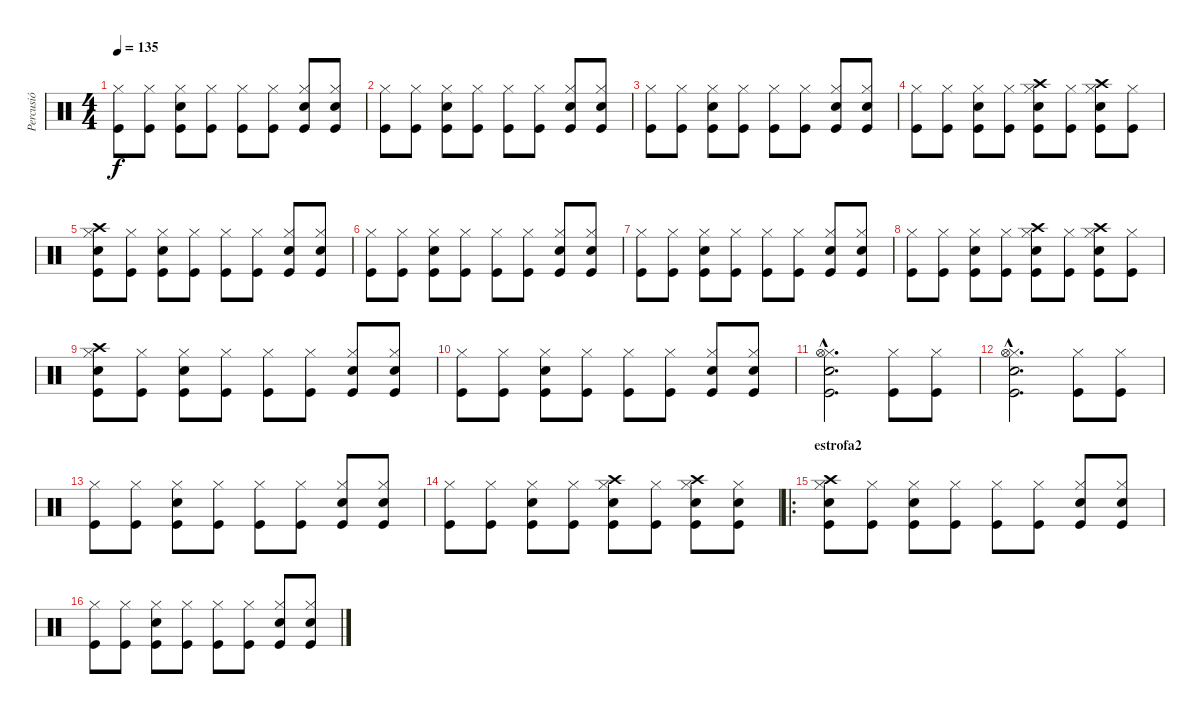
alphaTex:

\track ("Percusió" "Percusió") {instrument percussion}
\staff {score}
\articulation defaults
\ts (4 4)
\tempo 135
\clef neutral
\ks c
("Kick (hit)" "Hi-Hat (closed)").8{dy f} ("Kick (hit)" "Hi-Hat (closed)").8 ("Kick (hit)" "Hi-Hat (closed)" "Snare (hit) 2").8 ("Kick (hit)" "Hi-Hat (closed)").8 ("Kick (hit)" "Hi-Hat (closed)").8 ("Kick (hit)" "Hi-Hat (closed)").8 ("Kick (hit)" "Hi-Hat (closed)" "Snare (hit) 2").8 ("Kick (hit)" "Hi-Hat (closed)" "Snare (hit) 2").8 |
("Kick (hit)" "Hi-Hat (closed)").8 ("Kick (hit)" "Hi-Hat (closed)").8 ("Kick (hit)" "Hi-Hat (closed)" "Snare (hit) 2").8 ("Kick (hit)" "Hi-Hat (closed)").8 ("Kick (hit)" "Hi-Hat (closed)").8 ("Kick (hit)" "Hi-Hat (closed)").8 ("Kick (hit)" "Hi-Hat (closed)" "Snare (hit) 2").8 ("Kick (hit)" "Hi-Hat (closed)" "Snare (hit) 2").8 |
("Kick (hit)" "Hi-Hat (closed)").8 ("Kick (hit)" "Hi-Hat (closed)").8 ("Kick (hit)" "Hi-Hat (closed)" "Snare (hit) 2").8 ("Kick (hit)" "Hi-Hat (closed)").8 ("Kick (hit)" "Hi-Hat (closed)").8 ("Kick (hit)" "Hi-Hat (closed)").8 ("Kick (hit)" "Hi-Hat (closed)" "Snare (hit) 2").8 ("Kick (hit)" "Hi-Hat (closed)" "Snare (hit) 2").8 |
("Kick (hit)" "Hi-Hat (closed)").8 ("Kick (hit)" "Hi-Hat (closed)").8 ("Kick (hit)" "Hi-Hat (closed)" "Snare (hit) 2").8 ("Kick (hit)" "Hi-Hat (closed)").8 ("Kick (hit)" "Hi-Hat (closed)" "Snare (hit) 2" "Crash high (hit)").8 ("Kick (hit)" "Hi-Hat (closed)").8 ("Kick (hit)" "Hi-Hat (closed)" "Snare (hit) 2" "Crash high (hit)").8 ("Kick (hit)" "Hi-Hat (closed)").8 |
("Kick (hit)" "Hi-Hat (closed)" "Snare (hit) 2" "Crash high (hit)").8 ("Kick (hit)" "Hi-Hat (closed)").8 ("Kick (hit)" "Hi-Hat (closed)" "Snare (hit) 2").8 ("Kick (hit)" "Hi-Hat (closed)").8 ("Kick (hit)" "Hi-Hat (closed)").8 ("Kick (hit)" "Hi-Hat (closed)").8 ("Kick (hit)" "Hi-Hat (closed)" "Snare (hit) 2").8 ("Kick (hit)" "Hi-Hat (closed)" "Snare (hit) 2").8 |
("Kick (hit)" "Hi-Hat (closed)").8 ("Kick (hit)" "Hi-Hat (closed)").8 ("Kick (hit)" "Hi-Hat (closed)" "Snare (hit) 2").8 ("Kick (hit)" "Hi-Hat (closed)").8 ("Kick (hit)" "Hi-Hat (closed)").8 ("Kick (hit)" "Hi-Hat (closed)").8 ("Kick (hit)" "Hi-Hat (closed)" "Snare (hit) 2").8 ("Kick (hit)" "Hi-Hat (closed)" "Snare (hit) 2").8 |
("Kick (hit)" "Hi-Hat (closed)").8 ("Kick (hit)" "Hi-Hat (closed)").8 ("Kick (hit)" "Hi-Hat (closed)" "Snare (hit) 2").8 ("Kick (hit)" "Hi-Hat (closed)").8 ("Kick (hit)" "Hi-Hat (closed)").8 ("Kick (hit)" "Hi-Hat (closed)").8 ("Kick (hit)" "Hi-Hat (closed)" "Snare (hit) 2").8 ("Kick (hit)" "Hi-Hat (closed)" "Snare (hit) 2").8 |
("Kick (hit)" "Hi-Hat (closed)").8 ("Kick (hit)" "Hi-Hat (closed)").8 ("Kick (hit)" "Hi-Hat (closed)" "Snare (hit) 2").8 ("Kick (hit)" "Hi-Hat (closed)").8 ("Kick (hit)" "Hi-Hat (closed)" "Snare (hit) 2" "Crash high (hit)").8 ("Kick (hit)" "Hi-Hat (closed)").8 ("Kick (hit)" "Hi-Hat (closed)" "Snare (hit) 2" "Crash high (hit)").8 ("Kick (hit)" "Hi-Hat (closed)").8 |
("Kick (hit)" "Hi-Hat (closed)" "Snare (hit) 2" "Crash high (hit)").8 ("Kick (hit)" "Hi-Hat (closed)").8 ("Kick (hit)" "Hi-Hat (closed)" "Snare (hit) 2").8 ("Kick (hit)" "Hi-Hat (closed)").8 ("Kick (hit)" "Hi-Hat (closed)").8 ("Kick (hit)" "Hi-Hat (closed)").8 ("Kick (hit)" "Hi-Hat (closed)" "Snare (hit) 2").8 ("Kick (hit)" "Hi-Hat (closed)" "Snare (hit) 2").8 |
("Kick (hit)" "Hi-Hat (closed)").8 ("Kick (hit)" "Hi-Hat (closed)").8 ("Kick (hit)" "Hi-Hat (closed)" "Snare (hit) 2").8 ("Kick (hit)" "Hi-Hat (closed)").8 ("Kick (hit)" "Hi-Hat (closed)").8 ("Kick (hit)" "Hi-Hat (closed)").8 ("Kick (hit)" "Hi-Hat (closed)" "Snare (hit) 2").8 ("Kick (hit)" "Hi-Hat (closed)" "Snare (hit) 2").8 |
("Kick (hit)"{hac} "Hi-Hat (closed)"{hac} "Snare (hit) 2"{hac} "Hi-Hat (open)"{hac}).2{d} ("Kick (hit)" "Hi-Hat (closed)").8 ("Kick (hit)" "Hi-Hat (closed)").8 |
("Kick (hit)"{hac} "Hi-Hat (closed)"{hac} "Snare (hit) 2"{hac} "Hi-Hat (open)"{hac}).2{d} ("Kick (hit)" "Hi-Hat (closed)").8 ("Kick (hit)" "Hi-Hat (closed)").8 |
("Kick (hit)" "Hi-Hat (closed)").8 ("Kick (hit)" "Hi-Hat (closed)").8 ("Kick (hit)" "Hi-Hat (closed)" "Snare (hit) 2").8 ("Kick (hit)" "Hi-Hat (closed)").8 ("Kick (hit)" "Hi-Hat (closed)").8 ("Kick (hit)" "Hi-Hat (closed)").8 ("Kick (hit)" "Hi-Hat (closed)" "Snare (hit) 2").8 ("Kick (hit)" "Hi-Hat (closed)" "Snare (hit) 2").8 |
("Kick (hit)" "Hi-Hat (closed)").8 ("Kick (hit)" "Hi-Hat (closed)").8 ("Kick (hit)" "Hi-Hat (closed)" "Snare (hit) 2").8 ("Kick (hit)" "Hi-Hat (closed)").8 ("Kick (hit)" "Hi-Hat (closed)" "Snare (hit) 2" "Crash high (hit)").8 ("Kick (hit)" "Hi-Hat (closed)").8 ("Kick (hit)" "Hi-Hat (closed)" "Snare (hit) 2" "Crash high (hit)").8 ("Kick (hit)" "Hi-Hat (closed)" "Snare (hit) 2").8 |
\ro
\section ("" "estrofa2")
("Kick (hit)" "Hi-Hat (closed)" "Snare (hit) 2" "Crash high (hit)").8 ("Kick (hit)" "Hi-Hat (closed)").8 ("Kick (hit)" "Hi-Hat (closed)" "Snare (hit) 2").8 ("Kick (hit)" "Hi-Hat (closed)").8 ("Kick (hit)" "Hi-Hat (closed)").8 ("Kick (hit)" "Hi-Hat (closed)").8 ("Kick (hit)" "Hi-Hat (closed)" "Snare (hit) 2").8 ("Kick (hit)" "Hi-Hat (closed)" "Snare (hit) 2").8 |
("Kick (hit)" "Hi-Hat (closed)").8 ("Kick (hit)" "Hi-Hat (closed)").8 ("Kick (hit)" "Hi-Hat (closed)" "Snare (hit) 2").8 ("Kick (hit)" "Hi-Hat (closed)").8 ("Kick (hit)" "Hi-Hat (closed)").8 ("Kick (hit)" "Hi-Hat (closed)").8 ("Kick (hit)" "Hi-Hat (closed)" "Snare (hit) 2").8 ("Kick (hit)" "Hi-Hat (closed)" "Snare (hit) 2").8
